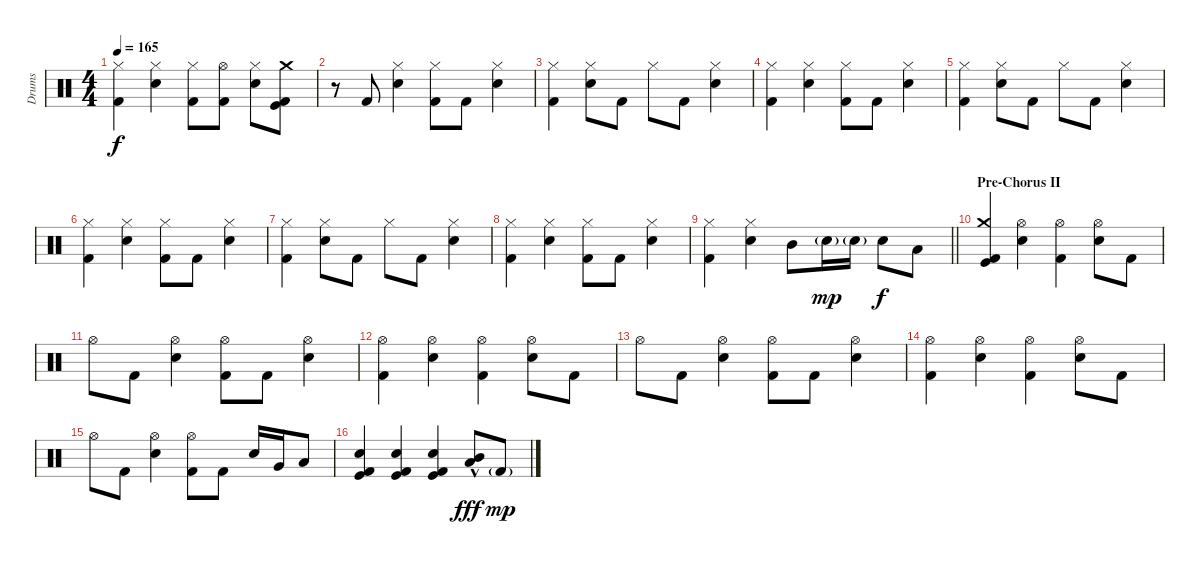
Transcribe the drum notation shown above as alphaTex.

\track ("Drums" "Drums") {instrument percussion}
\staff {score}
\articulation defaults
\ts (4 4)
\tempo 165
\clef neutral
\ks c
("Hi-Hat (closed)" "Kick (hit) 2").4{dy f} ("Hi-Hat (closed)" "Electric Snare (hit)").4 ("Hi-Hat (closed)" "Kick (hit) 2").8 ("Hi-Hat (open)" "Kick (hit) 2").8 ("Hi-Hat (closed)" "Electric Snare (hit)").8 ("Crash medium (hit)" "Kick (hit) 2" "Kick (hit)").8 |
r.8 "Kick (hit) 2".8 ("Hi-Hat (closed)" "Electric Snare (hit)").4 ("Hi-Hat (closed)" "Kick (hit) 2").8 "Kick (hit) 2".8 ("Hi-Hat (closed)" "Electric Snare (hit)").4 |
("Hi-Hat (closed)" "Kick (hit) 2").4 ("Hi-Hat (closed)" "Electric Snare (hit)").8 "Kick (hit) 2".8 "Hi-Hat (closed)".8 "Kick (hit) 2".8 ("Hi-Hat (closed)" "Electric Snare (hit)").4 |
("Hi-Hat (closed)" "Kick (hit) 2").4 ("Hi-Hat (closed)" "Electric Snare (hit)").4 ("Hi-Hat (closed)" "Kick (hit) 2").8 "Kick (hit) 2".8 ("Hi-Hat (closed)" "Electric Snare (hit)").4 |
("Hi-Hat (closed)" "Kick (hit) 2").4 ("Hi-Hat (closed)" "Electric Snare (hit)").8 "Kick (hit) 2".8 "Hi-Hat (closed)".8 "Kick (hit) 2".8 ("Hi-Hat (closed)" "Electric Snare (hit)").4 |
("Hi-Hat (closed)" "Kick (hit) 2").4 ("Hi-Hat (closed)" "Electric Snare (hit)").4 ("Hi-Hat (closed)" "Kick (hit) 2").8 "Kick (hit) 2".8 ("Hi-Hat (closed)" "Electric Snare (hit)").4 |
("Hi-Hat (closed)" "Kick (hit) 2").4 ("Hi-Hat (closed)" "Electric Snare (hit)").8 "Kick (hit) 2".8 "Hi-Hat (closed)".8 "Kick (hit) 2".8 ("Hi-Hat (closed)" "Electric Snare (hit)").4 |
("Hi-Hat (closed)" "Kick (hit) 2").4 ("Hi-Hat (closed)" "Electric Snare (hit)").4 ("Hi-Hat (closed)" "Kick (hit) 2").8 "Kick (hit) 2".8 ("Hi-Hat (closed)" "Electric Snare (hit)").4 |
\barLineRight lightlight
("Hi-Hat (closed)" "Kick (hit) 2").4 ("Hi-Hat (closed)" "Electric Snare (hit)").4 "Mid Tom (hit)".8 "Electric Snare (hit)"{g}.16{dy mp} "Electric Snare (hit)"{g}.16 "Electric Snare (hit)".8{dy f} "Low Tom (hit)".8 |
\section ("" "Pre-Chorus II")
("Crash medium (hit)" "Kick (hit) 2" "Kick (hit)").4 ("Hi-Hat (open)" "Electric Snare (hit)").4 ("Hi-Hat (open)" "Kick (hit) 2").4 ("Hi-Hat (open)" "Electric Snare (hit)").8 "Kick (hit) 2".8 |
"Hi-Hat (open)".8 "Kick (hit) 2".8 ("Hi-Hat (open)" "Electric Snare (hit)").4 ("Hi-Hat (open)" "Kick (hit) 2").8 "Kick (hit) 2".8 ("Hi-Hat (open)" "Electric Snare (hit)").4 |
("Hi-Hat (open)" "Kick (hit) 2").4 ("Hi-Hat (open)" "Electric Snare (hit)").4 ("Hi-Hat (open)" "Kick (hit) 2").4 ("Hi-Hat (open)" "Electric Snare (hit)").8 "Kick (hit) 2".8 |
"Hi-Hat (open)".8 "Kick (hit) 2".8 ("Hi-Hat (open)" "Electric Snare (hit)").4 ("Hi-Hat (open)" "Kick (hit) 2").8 "Kick (hit) 2".8 ("Hi-Hat (open)" "Electric Snare (hit)").4 |
("Hi-Hat (open)" "Kick (hit) 2").4 ("Hi-Hat (open)" "Electric Snare (hit)").4 ("Hi-Hat (open)" "Kick (hit) 2").4 ("Hi-Hat (open)" "Electric Snare (hit)").8 "Kick (hit) 2".8 |
"Hi-Hat (open)".8 "Kick (hit) 2".8 ("Hi-Hat (open)" "Electric Snare (hit)").4 ("Hi-Hat (open)" "Kick (hit) 2").8 "Kick (hit) 2".8 "Electric Snare (hit)".16 "Very Low Tom (hit)".16 "Low Floor Tom (hit)".8 |
("Kick (hit) 2" "Kick (hit)" "Electric Snare (hit)").4 ("Kick (hit) 2" "Kick (hit)" "Electric Snare (hit)").4 ("Kick (hit) 2" "Kick (hit)" "Electric Snare (hit)").4 ("Mid Tom (hit)"{hac} "Low Floor Tom (hit)").8{dy fff} "Kick (hit) 2"{g}.8{dy mp}
